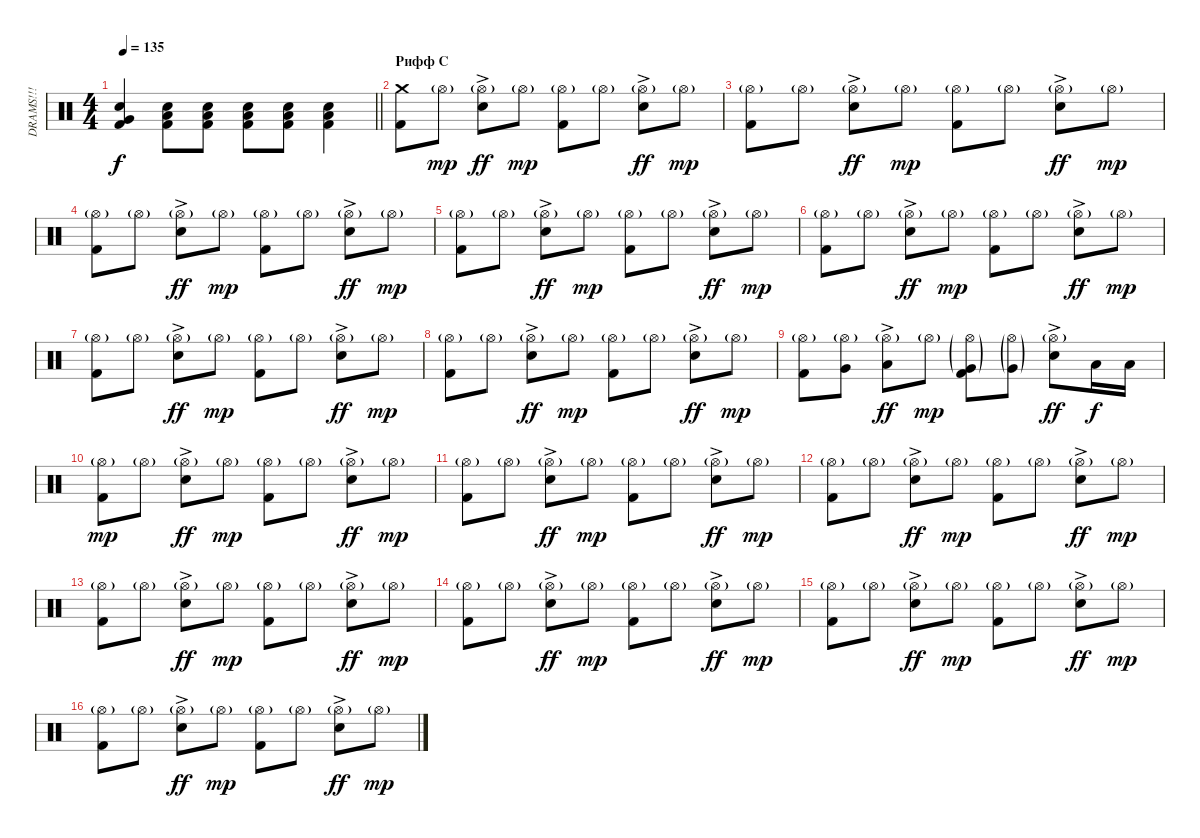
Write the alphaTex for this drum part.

\track ("DRAMS!!!" "DRAMS!!!") {instrument percussion}
\staff {score}
\articulation defaults
\ts (4 4)
\tempo 135
\clef neutral
\barLineRight lightlight
\ks c
("Hand Clap (hit)" "Very Low Tom (hit)" "Kick (hit) 2").4{dy f} ("Hand Clap (hit)" "Low Tom (hit)" "Kick (hit) 2").8 ("Hand Clap (hit)" "Low Tom (hit)" "Kick (hit) 2").8 ("Hand Clap (hit)" "Low Tom (hit)" "Kick (hit) 2").8 ("Hand Clap (hit)" "Low Tom (hit)" "Kick (hit) 2").8 ("Hand Clap (hit)" "Low Tom (hit)" "Kick (hit) 2").4 |
\section ("" "Рифф С")
("Crash medium (hit)" "Kick (hit) 2").8 "Hi-Hat (open)"{g}.8{dy mp} ("Hi-Hat (open)"{g} "Snare (hit) 2"{ac}).8{dy ff} "Hi-Hat (open)"{g}.8{dy mp} ("Hi-Hat (open)"{g} "Kick (hit) 2").8 "Hi-Hat (open)"{g}.8 ("Hi-Hat (open)"{g} "Snare (hit) 2"{ac}).8{dy ff} "Hi-Hat (open)"{g}.8{dy mp} |
("Hi-Hat (open)"{g} "Kick (hit) 2").8 "Hi-Hat (open)"{g}.8 ("Hi-Hat (open)"{g} "Snare (hit) 2"{ac}).8{dy ff} "Hi-Hat (open)"{g}.8{dy mp} ("Hi-Hat (open)"{g} "Kick (hit) 2").8 "Hi-Hat (open)"{g}.8 ("Hi-Hat (open)"{g} "Snare (hit) 2"{ac}).8{dy ff} "Hi-Hat (open)"{g}.8{dy mp} |
("Hi-Hat (open)"{g} "Kick (hit) 2").8 "Hi-Hat (open)"{g}.8 ("Hi-Hat (open)"{g} "Snare (hit) 2"{ac}).8{dy ff} "Hi-Hat (open)"{g}.8{dy mp} ("Hi-Hat (open)"{g} "Kick (hit) 2").8 "Hi-Hat (open)"{g}.8 ("Hi-Hat (open)"{g} "Snare (hit) 2"{ac}).8{dy ff} "Hi-Hat (open)"{g}.8{dy mp} |
("Hi-Hat (open)"{g} "Kick (hit) 2").8 "Hi-Hat (open)"{g}.8 ("Hi-Hat (open)"{g} "Snare (hit) 2"{ac}).8{dy ff} "Hi-Hat (open)"{g}.8{dy mp} ("Hi-Hat (open)"{g} "Kick (hit) 2").8 "Hi-Hat (open)"{g}.8 ("Hi-Hat (open)"{g} "Snare (hit) 2"{ac}).8{dy ff} "Hi-Hat (open)"{g}.8{dy mp} |
("Hi-Hat (open)"{g} "Kick (hit) 2").8 "Hi-Hat (open)"{g}.8 ("Hi-Hat (open)"{g} "Snare (hit) 2"{ac}).8{dy ff} "Hi-Hat (open)"{g}.8{dy mp} ("Hi-Hat (open)"{g} "Kick (hit) 2").8 "Hi-Hat (open)"{g}.8 ("Hi-Hat (open)"{g} "Snare (hit) 2"{ac}).8{dy ff} "Hi-Hat (open)"{g}.8{dy mp} |
("Hi-Hat (open)"{g} "Kick (hit) 2").8 "Hi-Hat (open)"{g}.8 ("Hi-Hat (open)"{g} "Snare (hit) 2"{ac}).8{dy ff} "Hi-Hat (open)"{g}.8{dy mp} ("Hi-Hat (open)"{g} "Kick (hit) 2").8 "Hi-Hat (open)"{g}.8 ("Hi-Hat (open)"{g} "Snare (hit) 2"{ac}).8{dy ff} "Hi-Hat (open)"{g}.8{dy mp} |
("Hi-Hat (open)"{g} "Kick (hit) 2").8 "Hi-Hat (open)"{g}.8 ("Hi-Hat (open)"{g} "Snare (hit) 2"{ac}).8{dy ff} "Hi-Hat (open)"{g}.8{dy mp} ("Hi-Hat (open)"{g} "Kick (hit) 2").8 "Hi-Hat (open)"{g}.8 ("Hi-Hat (open)"{g} "Snare (hit) 2"{ac}).8{dy ff} "Hi-Hat (open)"{g}.8{dy mp} |
("Hi-Hat (open)"{g} "Kick (hit) 2").8 ("Hi-Hat (open)"{g} "Very Low Tom (hit)").8 ("Hi-Hat (open)"{g} "Low Floor Tom (hit)"{ac}).8{dy ff} "Hi-Hat (open)"{g}.8{dy mp} ("Hi-Hat (open)"{g} "Very Low Tom (hit)"{g} "Kick (hit) 2").8 ("Hi-Hat (open)"{g} "Very Low Tom (hit)"{g}).8 ("Hi-Hat (open)"{g} "Snare (hit) 2"{ac}).8{dy ff} "Low Tom (hit)".16{dy f} "Low Tom (hit)".16 |
("Hi-Hat (open)"{g} "Kick (hit) 2").8{dy mp} "Hi-Hat (open)"{g}.8 ("Hi-Hat (open)"{g} "Snare (hit) 2"{ac}).8{dy ff} "Hi-Hat (open)"{g}.8{dy mp} ("Hi-Hat (open)"{g} "Kick (hit) 2").8 "Hi-Hat (open)"{g}.8 ("Hi-Hat (open)"{g} "Snare (hit) 2"{ac}).8{dy ff} "Hi-Hat (open)"{g}.8{dy mp} |
("Hi-Hat (open)"{g} "Kick (hit) 2").8 "Hi-Hat (open)"{g}.8 ("Hi-Hat (open)"{g} "Snare (hit) 2"{ac}).8{dy ff} "Hi-Hat (open)"{g}.8{dy mp} ("Hi-Hat (open)"{g} "Kick (hit) 2").8 "Hi-Hat (open)"{g}.8 ("Hi-Hat (open)"{g} "Snare (hit) 2"{ac}).8{dy ff} "Hi-Hat (open)"{g}.8{dy mp} |
("Hi-Hat (open)"{g} "Kick (hit) 2").8 "Hi-Hat (open)"{g}.8 ("Hi-Hat (open)"{g} "Snare (hit) 2"{ac}).8{dy ff} "Hi-Hat (open)"{g}.8{dy mp} ("Hi-Hat (open)"{g} "Kick (hit) 2").8 "Hi-Hat (open)"{g}.8 ("Hi-Hat (open)"{g} "Snare (hit) 2"{ac}).8{dy ff} "Hi-Hat (open)"{g}.8{dy mp} |
("Hi-Hat (open)"{g} "Kick (hit) 2").8 "Hi-Hat (open)"{g}.8 ("Hi-Hat (open)"{g} "Snare (hit) 2"{ac}).8{dy ff} "Hi-Hat (open)"{g}.8{dy mp} ("Hi-Hat (open)"{g} "Kick (hit) 2").8 "Hi-Hat (open)"{g}.8 ("Hi-Hat (open)"{g} "Snare (hit) 2"{ac}).8{dy ff} "Hi-Hat (open)"{g}.8{dy mp} |
("Hi-Hat (open)"{g} "Kick (hit) 2").8 "Hi-Hat (open)"{g}.8 ("Hi-Hat (open)"{g} "Snare (hit) 2"{ac}).8{dy ff} "Hi-Hat (open)"{g}.8{dy mp} ("Hi-Hat (open)"{g} "Kick (hit) 2").8 "Hi-Hat (open)"{g}.8 ("Hi-Hat (open)"{g} "Snare (hit) 2"{ac}).8{dy ff} "Hi-Hat (open)"{g}.8{dy mp} |
("Hi-Hat (open)"{g} "Kick (hit) 2").8 "Hi-Hat (open)"{g}.8 ("Hi-Hat (open)"{g} "Snare (hit) 2"{ac}).8{dy ff} "Hi-Hat (open)"{g}.8{dy mp} ("Hi-Hat (open)"{g} "Kick (hit) 2").8 "Hi-Hat (open)"{g}.8 ("Hi-Hat (open)"{g} "Snare (hit) 2"{ac}).8{dy ff} "Hi-Hat (open)"{g}.8{dy mp} |
("Hi-Hat (open)"{g} "Kick (hit) 2").8 "Hi-Hat (open)"{g}.8 ("Hi-Hat (open)"{g} "Snare (hit) 2"{ac}).8{dy ff} "Hi-Hat (open)"{g}.8{dy mp} ("Hi-Hat (open)"{g} "Kick (hit) 2").8 "Hi-Hat (open)"{g}.8 ("Hi-Hat (open)"{g} "Snare (hit) 2"{ac}).8{dy ff} "Hi-Hat (open)"{g}.8{dy mp}
